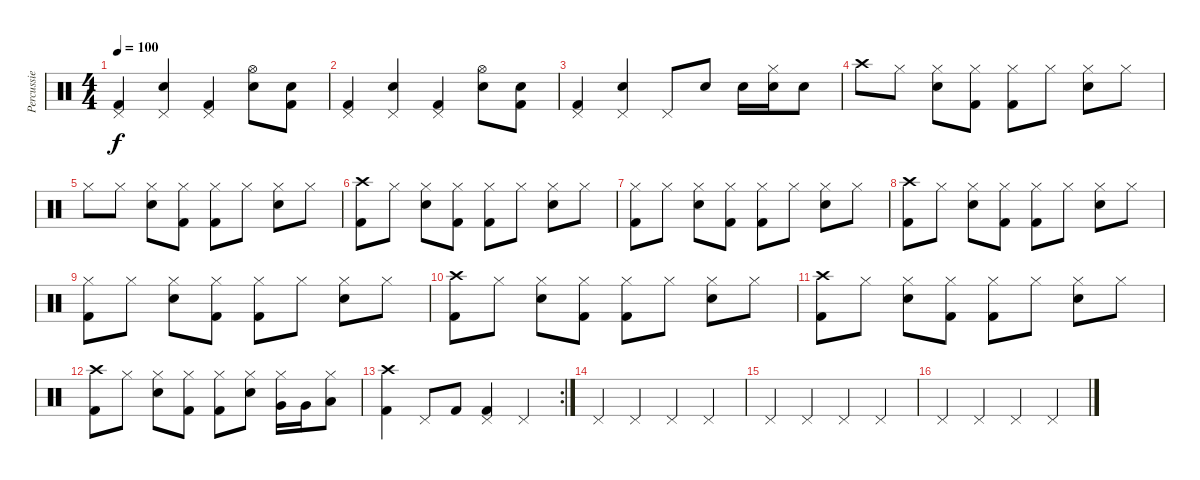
\track ("Percussie" "Percussie") {instrument percussion}
\staff {score}
\articulation defaults
\ts (4 4)
\tempo 100
\clef neutral
\ks c
("Pedal Hi-Hat (hit)" "Kick (hit) 2").4{dy f} ("Pedal Hi-Hat (hit)" "Snare (hit) 2").4 ("Pedal Hi-Hat (hit)" "Kick (hit) 2").4 ("Hi-Hat (open)" "Snare (hit) 2").8 ("Snare (hit) 2" "Kick (hit) 2").8 |
("Pedal Hi-Hat (hit)" "Kick (hit) 2").4 ("Pedal Hi-Hat (hit)" "Snare (hit) 2").4 ("Pedal Hi-Hat (hit)" "Kick (hit) 2").4 ("Hi-Hat (open)" "Snare (hit) 2").8 ("Snare (hit) 2" "Kick (hit) 2").8 |
("Pedal Hi-Hat (hit)" "Kick (hit) 2").4 ("Pedal Hi-Hat (hit)" "Snare (hit) 2").4 "Pedal Hi-Hat (hit)".8 "Snare (hit) 2".8 "Snare (hit) 2".16 ("Hi-Hat (closed)" "Snare (hit) 2").16 "Snare (hit) 2".8 |
"Crash high (hit)".8 "Hi-Hat (closed)".8 ("Hi-Hat (closed)" "Snare (hit) 2").8 ("Hi-Hat (closed)" "Kick (hit) 2").8 ("Hi-Hat (closed)" "Kick (hit) 2").8 "Hi-Hat (closed)".8 ("Hi-Hat (closed)" "Snare (hit) 2").8 "Hi-Hat (closed)".8 |
"Hi-Hat (closed)".8 "Hi-Hat (closed)".8 ("Hi-Hat (closed)" "Snare (hit) 2").8 ("Hi-Hat (closed)" "Kick (hit) 2").8 ("Hi-Hat (closed)" "Kick (hit) 2").8 "Hi-Hat (closed)".8 ("Hi-Hat (closed)" "Snare (hit) 2").8 "Hi-Hat (closed)".8 |
("Crash high (hit)" "Kick (hit) 2").8 "Hi-Hat (closed)".8 ("Hi-Hat (closed)" "Snare (hit) 2").8 ("Hi-Hat (closed)" "Kick (hit) 2").8 ("Hi-Hat (closed)" "Kick (hit) 2").8 "Hi-Hat (closed)".8 ("Hi-Hat (closed)" "Snare (hit) 2").8 "Hi-Hat (closed)".8 |
("Hi-Hat (closed)" "Kick (hit) 2").8 "Hi-Hat (closed)".8 ("Hi-Hat (closed)" "Snare (hit) 2").8 ("Hi-Hat (closed)" "Kick (hit) 2").8 ("Hi-Hat (closed)" "Kick (hit) 2").8 "Hi-Hat (closed)".8 ("Hi-Hat (closed)" "Snare (hit) 2").8 "Hi-Hat (closed)".8 |
("Crash high (hit)" "Kick (hit) 2").8 "Hi-Hat (closed)".8 ("Hi-Hat (closed)" "Snare (hit) 2").8 ("Hi-Hat (closed)" "Kick (hit) 2").8 ("Hi-Hat (closed)" "Kick (hit) 2").8 "Hi-Hat (closed)".8 ("Hi-Hat (closed)" "Snare (hit) 2").8 "Hi-Hat (closed)".8 |
("Hi-Hat (closed)" "Kick (hit) 2").8 "Hi-Hat (closed)".8 ("Hi-Hat (closed)" "Snare (hit) 2").8 ("Hi-Hat (closed)" "Kick (hit) 2").8 ("Hi-Hat (closed)" "Kick (hit) 2").8 "Hi-Hat (closed)".8 ("Hi-Hat (closed)" "Snare (hit) 2").8 "Hi-Hat (closed)".8 |
("Crash high (hit)" "Kick (hit) 2").8 "Hi-Hat (closed)".8 ("Hi-Hat (closed)" "Snare (hit) 2").8 ("Hi-Hat (closed)" "Kick (hit) 2").8 ("Hi-Hat (closed)" "Kick (hit) 2").8 "Hi-Hat (closed)".8 ("Hi-Hat (closed)" "Snare (hit) 2").8 "Hi-Hat (closed)".8 |
("Crash high (hit)" "Kick (hit) 2").8 "Hi-Hat (closed)".8 ("Hi-Hat (closed)" "Snare (hit) 2").8 ("Hi-Hat (closed)" "Kick (hit) 2").8 ("Hi-Hat (closed)" "Kick (hit) 2").8 "Hi-Hat (closed)".8 ("Hi-Hat (closed)" "Snare (hit) 2").8 "Hi-Hat (closed)".8 |
("Crash high (hit)" "Kick (hit) 2").8 "Hi-Hat (closed)".8 ("Hi-Hat (closed)" "Snare (hit) 2").8 ("Hi-Hat (closed)" "Kick (hit) 2").8 ("Hi-Hat (closed)" "Kick (hit) 2").8 ("Hi-Hat (closed)" "Snare (hit) 2").8 ("Hi-Hat (closed)" "Very Low Tom (hit)").16 "Very Low Tom (hit)".16 ("Hi-Hat (closed)" "Low Tom (hit)").8 |
\rc 2
("Crash high (hit)" "Kick (hit) 2").4 "Pedal Hi-Hat (hit)".8 "Kick (hit) 2".8 ("Pedal Hi-Hat (hit)" "Kick (hit) 2").4 "Pedal Hi-Hat (hit)".4 |
"Pedal Hi-Hat (hit)".4 "Pedal Hi-Hat (hit)".4 "Pedal Hi-Hat (hit)".4 "Pedal Hi-Hat (hit)".4 |
"Pedal Hi-Hat (hit)".4 "Pedal Hi-Hat (hit)".4 "Pedal Hi-Hat (hit)".4 "Pedal Hi-Hat (hit)".4 |
"Pedal Hi-Hat (hit)".4 "Pedal Hi-Hat (hit)".4 "Pedal Hi-Hat (hit)".4 "Pedal Hi-Hat (hit)".4
